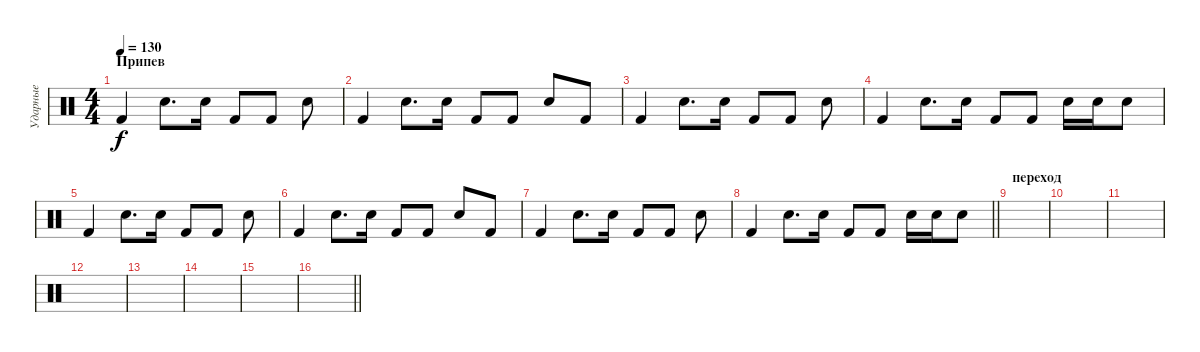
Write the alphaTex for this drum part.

\track ("Ударные" "Ударные") {instrument percussion}
\staff {score}
\articulation defaults
\ts (4 4)
\section ("" "Припев")
\tempo 130
\clef neutral
\ks c "Kick (hit) 2".4{dy f} "Electric Snare (hit)".8{d} "Electric Snare (hit)".16 "Kick (hit) 2".8 "Kick (hit) 2".8 "Electric Snare (hit)".8
|
"Kick (hit) 2".4 "Electric Snare (hit)".8{d} "Electric Snare (hit)".16 "Kick (hit) 2".8 "Kick (hit) 2".8 "Electric Snare (hit)".8 "Kick (hit) 2".8 |
"Kick (hit) 2".4 "Electric Snare (hit)".8{d} "Electric Snare (hit)".16 "Kick (hit) 2".8 "Kick (hit) 2".8 "Electric Snare (hit)".8 |
"Kick (hit) 2".4 "Electric Snare (hit)".8{d} "Electric Snare (hit)".16 "Kick (hit) 2".8 "Kick (hit) 2".8 "Electric Snare (hit)".16 "Electric Snare (hit)".16 "Electric Snare (hit)".8 |
"Kick (hit) 2".4 "Electric Snare (hit)".8{d} "Electric Snare (hit)".16 "Kick (hit) 2".8 "Kick (hit) 2".8 "Electric Snare (hit)".8 |
"Kick (hit) 2".4 "Electric Snare (hit)".8{d} "Electric Snare (hit)".16 "Kick (hit) 2".8 "Kick (hit) 2".8 "Electric Snare (hit)".8 "Kick (hit) 2".8 |
"Kick (hit) 2".4 "Electric Snare (hit)".8{d} "Electric Snare (hit)".16 "Kick (hit) 2".8 "Kick (hit) 2".8 "Electric Snare (hit)".8 |
\barLineRight lightlight "Kick (hit) 2".4 "Electric Snare (hit)".8{d} "Electric Snare (hit)".16 "Kick (hit) 2".8 "Kick (hit) 2".8 "Electric Snare (hit)".16 "Electric Snare (hit)".16 "Electric Snare (hit)".8
|
\section ("" "переход")
|
|
|
|
|
|
|
\barLineRight lightlight
